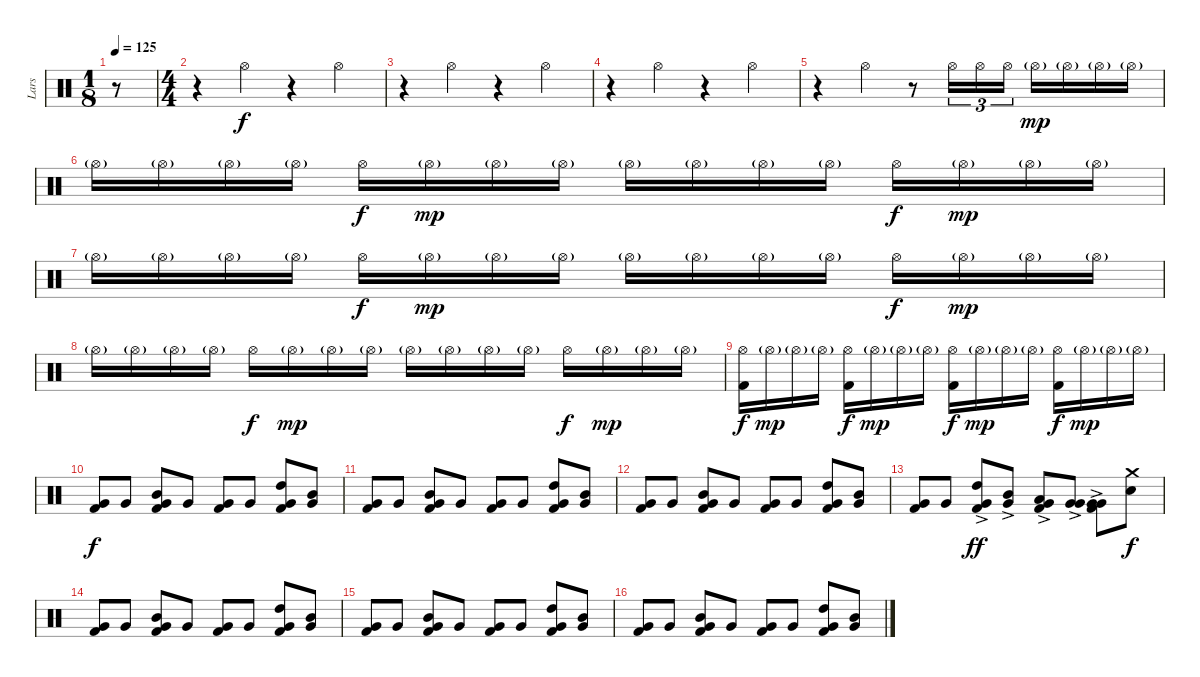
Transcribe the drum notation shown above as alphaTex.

\track ("Lars" "Lars") {instrument percussion}
\staff {score}
\articulation defaults
\ts (1 8)
\tempo 125
\clef neutral
\ks c
r.8{dy f} |
\ts (4 4)
r.4 "Hi-Hat (open)".4 r.4 "Hi-Hat (open)".4 |
r.4 "Hi-Hat (open)".4 r.4 "Hi-Hat (open)".4 |
r.4 "Hi-Hat (open)".4 r.4 "Hi-Hat (open)".4 |
r.4 "Hi-Hat (open)".4 r.8 "Hi-Hat (open)".16{tu (3 2)} "Hi-Hat (open)".16{tu (3 2)} "Hi-Hat (open)".16{tu (3 2)} "Hi-Hat (open)"{g}.16{dy mp} "Hi-Hat (open)"{g}.16 "Hi-Hat (open)"{g}.16 "Hi-Hat (open)"{g}.16 |
"Hi-Hat (open)"{g}.16 "Hi-Hat (open)"{g}.16 "Hi-Hat (open)"{g}.16 "Hi-Hat (open)"{g}.16 "Hi-Hat (open)".16{dy f} "Hi-Hat (open)"{g}.16{dy mp} "Hi-Hat (open)"{g}.16 "Hi-Hat (open)"{g}.16 "Hi-Hat (open)"{g}.16 "Hi-Hat (open)"{g}.16 "Hi-Hat (open)"{g}.16 "Hi-Hat (open)"{g}.16 "Hi-Hat (open)".16{dy f} "Hi-Hat (open)"{g}.16{dy mp} "Hi-Hat (open)"{g}.16 "Hi-Hat (open)"{g}.16 |
"Hi-Hat (open)"{g}.16 "Hi-Hat (open)"{g}.16 "Hi-Hat (open)"{g}.16 "Hi-Hat (open)"{g}.16 "Hi-Hat (open)".16{dy f} "Hi-Hat (open)"{g}.16{dy mp} "Hi-Hat (open)"{g}.16 "Hi-Hat (open)"{g}.16 "Hi-Hat (open)"{g}.16 "Hi-Hat (open)"{g}.16 "Hi-Hat (open)"{g}.16 "Hi-Hat (open)"{g}.16 "Hi-Hat (open)".16{dy f} "Hi-Hat (open)"{g}.16{dy mp} "Hi-Hat (open)"{g}.16 "Hi-Hat (open)"{g}.16 |
"Hi-Hat (open)"{g}.16 "Hi-Hat (open)"{g}.16 "Hi-Hat (open)"{g}.16 "Hi-Hat (open)"{g}.16 "Hi-Hat (open)".16{dy f} "Hi-Hat (open)"{g}.16{dy mp} "Hi-Hat (open)"{g}.16 "Hi-Hat (open)"{g}.16 "Hi-Hat (open)"{g}.16 "Hi-Hat (open)"{g}.16 "Hi-Hat (open)"{g}.16 "Hi-Hat (open)"{g}.16 "Hi-Hat (open)".16{dy f} "Hi-Hat (open)"{g}.16{dy mp} "Hi-Hat (open)"{g}.16 "Hi-Hat (open)"{g}.16 |
("Hi-Hat (open)" "Kick (hit) 2").16{dy f} "Hi-Hat (open)"{g}.16{dy mp} "Hi-Hat (open)"{g}.16 "Hi-Hat (open)"{g}.16 ("Hi-Hat (open)" "Kick (hit) 2").16{dy f} "Hi-Hat (open)"{g}.16{dy mp} "Hi-Hat (open)"{g}.16 "Hi-Hat (open)"{g}.16 ("Hi-Hat (open)" "Kick (hit) 2").16{dy f} "Hi-Hat (open)"{g}.16{dy mp} "Hi-Hat (open)"{g}.16 "Hi-Hat (open)"{g}.16 ("Hi-Hat (open)" "Kick (hit) 2").16{dy f} "Hi-Hat (open)"{g}.16{dy mp} "Hi-Hat (open)"{g}.16 "Hi-Hat (open)"{g}.16 |
("Very Low Tom (hit)" "Kick (hit) 2").8{dy f} "Very Low Tom (hit)".8 ("Mid Tom (hit)" "Very Low Tom (hit)" "Kick (hit) 2").8 "Very Low Tom (hit)".8 ("Very Low Tom (hit)" "Kick (hit) 2").8 "Very Low Tom (hit)".8 ("High Tom (hit)" "Very Low Tom (hit)" "Kick (hit) 2").8 ("Mid Tom (hit)" "Very Low Tom (hit)").8 |
("Very Low Tom (hit)" "Kick (hit) 2").8 "Very Low Tom (hit)".8 ("Mid Tom (hit)" "Very Low Tom (hit)" "Kick (hit) 2").8 "Very Low Tom (hit)".8 ("Very Low Tom (hit)" "Kick (hit) 2").8 "Very Low Tom (hit)".8 ("High Tom (hit)" "Very Low Tom (hit)" "Kick (hit) 2").8 ("Mid Tom (hit)" "Very Low Tom (hit)").8 |
("Very Low Tom (hit)" "Kick (hit) 2").8 "Very Low Tom (hit)".8 ("Mid Tom (hit)" "Very Low Tom (hit)" "Kick (hit) 2").8 "Very Low Tom (hit)".8 ("Very Low Tom (hit)" "Kick (hit) 2").8 "Very Low Tom (hit)".8 ("High Tom (hit)" "Very Low Tom (hit)" "Kick (hit) 2").8 ("Mid Tom (hit)" "Very Low Tom (hit)").8 |
("Very Low Tom (hit)" "Kick (hit) 2").8 "Very Low Tom (hit)".8 ("High Tom (hit)"{ac} "Very Low Tom (hit)" "Kick (hit) 2").8{dy ff} ("Mid Tom (hit)"{ac} "Very Low Tom (hit)").8 ("Low Tom (hit)"{ac} "Kick (hit) 2" "Very Low Tom (hit)").8 ("Very Low Tom (hit)"{ac} "Very Low Tom (hit)").8 ("Very Low Tom (hit)"{ac} "Very Low Tom (hit)" "Kick (hit) 2").8 ("Snare (hit) 2" "Crash medium (hit)").8{dy f} |
("Very Low Tom (hit)" "Kick (hit) 2").8 "Very Low Tom (hit)".8 ("Mid Tom (hit)" "Very Low Tom (hit)" "Kick (hit) 2").8 "Very Low Tom (hit)".8 ("Very Low Tom (hit)" "Kick (hit) 2").8 "Very Low Tom (hit)".8 ("High Tom (hit)" "Very Low Tom (hit)" "Kick (hit) 2").8 ("Mid Tom (hit)" "Very Low Tom (hit)").8 |
("Very Low Tom (hit)" "Kick (hit) 2").8 "Very Low Tom (hit)".8 ("Mid Tom (hit)" "Very Low Tom (hit)" "Kick (hit) 2").8 "Very Low Tom (hit)".8 ("Very Low Tom (hit)" "Kick (hit) 2").8 "Very Low Tom (hit)".8 ("High Tom (hit)" "Very Low Tom (hit)" "Kick (hit) 2").8 ("Mid Tom (hit)" "Very Low Tom (hit)").8 |
("Very Low Tom (hit)" "Kick (hit) 2").8 "Very Low Tom (hit)".8 ("Mid Tom (hit)" "Very Low Tom (hit)" "Kick (hit) 2").8 "Very Low Tom (hit)".8 ("Very Low Tom (hit)" "Kick (hit) 2").8 "Very Low Tom (hit)".8 ("High Tom (hit)" "Very Low Tom (hit)" "Kick (hit) 2").8 ("Mid Tom (hit)" "Very Low Tom (hit)").8
